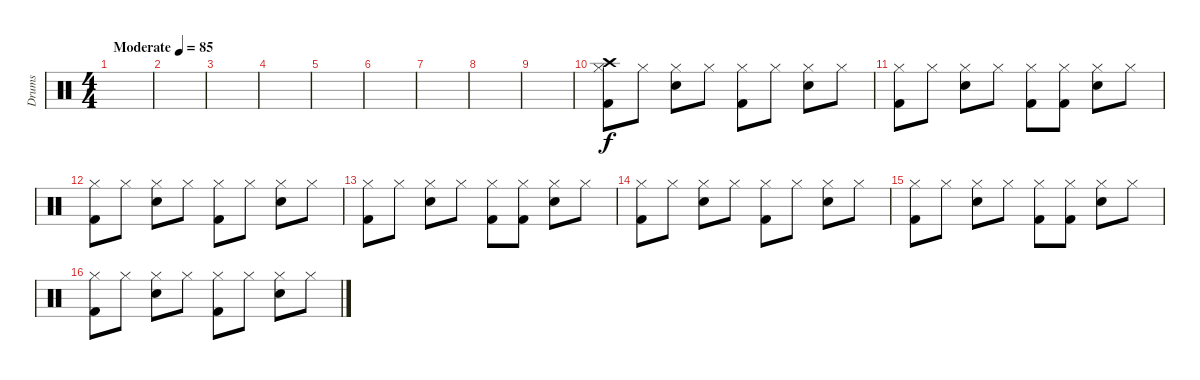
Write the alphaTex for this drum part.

\track ("Drums" "Drums") {instrument percussion}
\staff {score}
\articulation defaults
\ts (4 4)
\tempo (85 "Moderate")
\clef neutral
\ks c
|
|
|
|
|
|
|
|
|
("Hi-Hat (closed)" "Kick (hit) 2" "Crash high (hit)").8 "Hi-Hat (closed)".8 ("Hi-Hat (closed)" "Snare (hit) 2").8 "Hi-Hat (closed)".8 ("Hi-Hat (closed)" "Kick (hit) 2").8 "Hi-Hat (closed)".8 ("Hi-Hat (closed)" "Snare (hit) 2").8 "Hi-Hat (closed)".8 |
("Hi-Hat (closed)" "Kick (hit) 2").8 "Hi-Hat (closed)".8 ("Hi-Hat (closed)" "Snare (hit) 2").8 "Hi-Hat (closed)".8 ("Hi-Hat (closed)" "Kick (hit) 2").8 ("Hi-Hat (closed)" "Kick (hit) 2").8 ("Hi-Hat (closed)" "Snare (hit) 2").8 "Hi-Hat (closed)".8 |
("Hi-Hat (closed)" "Kick (hit) 2").8 "Hi-Hat (closed)".8 ("Hi-Hat (closed)" "Snare (hit) 2").8 "Hi-Hat (closed)".8 ("Hi-Hat (closed)" "Kick (hit) 2").8 "Hi-Hat (closed)".8 ("Hi-Hat (closed)" "Snare (hit) 2").8 "Hi-Hat (closed)".8 |
("Hi-Hat (closed)" "Kick (hit) 2").8 "Hi-Hat (closed)".8 ("Hi-Hat (closed)" "Snare (hit) 2").8 "Hi-Hat (closed)".8 ("Hi-Hat (closed)" "Kick (hit) 2").8 ("Hi-Hat (closed)" "Kick (hit) 2").8 ("Hi-Hat (closed)" "Snare (hit) 2").8 "Hi-Hat (closed)".8 |
("Hi-Hat (closed)" "Kick (hit) 2").8 "Hi-Hat (closed)".8 ("Hi-Hat (closed)" "Snare (hit) 2").8 "Hi-Hat (closed)".8 ("Hi-Hat (closed)" "Kick (hit) 2").8 "Hi-Hat (closed)".8 ("Hi-Hat (closed)" "Snare (hit) 2").8 "Hi-Hat (closed)".8 |
("Hi-Hat (closed)" "Kick (hit) 2").8 "Hi-Hat (closed)".8 ("Hi-Hat (closed)" "Snare (hit) 2").8 "Hi-Hat (closed)".8 ("Hi-Hat (closed)" "Kick (hit) 2").8 ("Hi-Hat (closed)" "Kick (hit) 2").8 ("Hi-Hat (closed)" "Snare (hit) 2").8 "Hi-Hat (closed)".8 |
("Hi-Hat (closed)" "Kick (hit) 2").8 "Hi-Hat (closed)".8 ("Hi-Hat (closed)" "Snare (hit) 2").8 "Hi-Hat (closed)".8 ("Hi-Hat (closed)" "Kick (hit) 2").8 "Hi-Hat (closed)".8 ("Hi-Hat (closed)" "Snare (hit) 2").8 "Hi-Hat (closed)".8
